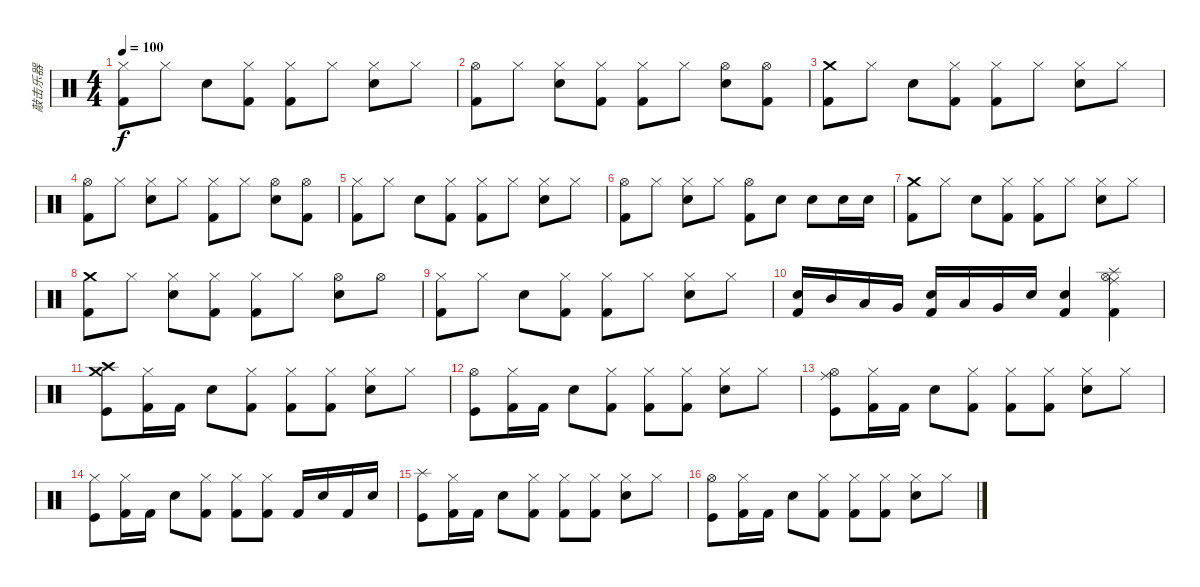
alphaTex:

\track ("敲击乐器" "敲击乐器") {instrument percussion}
\staff {score}
\articulation defaults
\ts (4 4)
\tempo 100
\clef neutral
\ks c
("Hi-Hat (closed)" "Kick (hit) 2").8{dy f} "Hi-Hat (closed)".8 "Electric Snare (hit)".8 ("Hi-Hat (closed)" "Kick (hit) 2").8 ("Hi-Hat (closed)" "Kick (hit) 2").8 "Hi-Hat (closed)".8 ("Hi-Hat (closed)" "Electric Snare (hit)").8 "Hi-Hat (closed)".8 |
("Hi-Hat (open)" "Kick (hit) 2").8 "Hi-Hat (closed)".8 ("Hi-Hat (closed)" "Electric Snare (hit)").8 ("Hi-Hat (closed)" "Kick (hit) 2").8 ("Hi-Hat (closed)" "Kick (hit) 2").8 "Hi-Hat (closed)".8 ("Hi-Hat (open)" "Electric Snare (hit)").8 ("Hi-Hat (open)" "Kick (hit) 2").8 |
("Crash medium (hit)" "Kick (hit) 2").8 "Hi-Hat (closed)".8 "Electric Snare (hit)".8 ("Hi-Hat (closed)" "Kick (hit) 2").8 ("Hi-Hat (closed)" "Kick (hit) 2").8 "Hi-Hat (closed)".8 ("Hi-Hat (closed)" "Electric Snare (hit)").8 "Hi-Hat (closed)".8 |
("Hi-Hat (open)" "Kick (hit) 2").8 "Hi-Hat (closed)".8 ("Hi-Hat (closed)" "Electric Snare (hit)").8 "Hi-Hat (closed)".8 ("Hi-Hat (closed)" "Kick (hit) 2").8 "Hi-Hat (closed)".8 ("Hi-Hat (open)" "Electric Snare (hit)").8 ("Hi-Hat (open)" "Kick (hit) 2").8 |
("Hi-Hat (closed)" "Kick (hit) 2").8 "Hi-Hat (closed)".8 "Electric Snare (hit)".8 ("Hi-Hat (closed)" "Kick (hit) 2").8 ("Hi-Hat (closed)" "Kick (hit) 2").8 "Hi-Hat (closed)".8 ("Hi-Hat (closed)" "Electric Snare (hit)").8 "Hi-Hat (closed)".8 |
("Hi-Hat (open)" "Kick (hit) 2").8 "Hi-Hat (closed)".8 ("Hi-Hat (closed)" "Electric Snare (hit)").8 "Hi-Hat (closed)".8 ("Hi-Hat (open)" "Kick (hit) 2").8 "Electric Snare (hit)".8 "Electric Snare (hit)".8 "Electric Snare (hit)".16 "Electric Snare (hit)".16 |
("Crash medium (hit)" "Kick (hit) 2").8 "Hi-Hat (closed)".8 "Electric Snare (hit)".8 ("Hi-Hat (closed)" "Kick (hit) 2").8 ("Hi-Hat (closed)" "Kick (hit) 2").8 "Hi-Hat (closed)".8 ("Hi-Hat (closed)" "Electric Snare (hit)").8 "Hi-Hat (closed)".8 |
("Crash medium (hit)" "Kick (hit) 2").8 "Hi-Hat (closed)".8 ("Hi-Hat (closed)" "Electric Snare (hit)").8 ("Hi-Hat (closed)" "Kick (hit) 2").8 ("Hi-Hat (closed)" "Kick (hit) 2").8 "Hi-Hat (closed)".8 ("Hi-Hat (open)" "Electric Snare (hit)").8 "Hi-Hat (open)".8 |
("Hi-Hat (closed)" "Kick (hit) 2").8 "Hi-Hat (closed)".8 "Electric Snare (hit)".8 ("Hi-Hat (closed)" "Kick (hit) 2").8 ("Hi-Hat (closed)" "Kick (hit) 2").8 "Hi-Hat (closed)".8 ("Hi-Hat (closed)" "Electric Snare (hit)").8 "Hi-Hat (closed)".8 |
("Electric Snare (hit)" "Kick (hit) 2").16 "Mid Tom (hit)".16 "Low Tom (hit)".16 "Very Low Tom (hit)".16 ("Electric Snare (hit)" "Kick (hit) 2").16 "Low Tom (hit)".16 "Very Low Tom (hit)".16 "Electric Snare (hit)".16 ("Electric Snare (hit)" "Kick (hit) 2").4 ("Splash (hit)" "Ride (middle)" "Hi-Hat (open)" "Kick (hit) 2").4 |
("Crash medium (hit)" "Crash high (hit)" "Kick (hit)").8 ("Hi-Hat (closed)" "Kick (hit) 2").16 "Kick (hit) 2".16 "Electric Snare (hit)".8 ("Hi-Hat (closed)" "Kick (hit) 2").8 ("Hi-Hat (closed)" "Kick (hit) 2").8 ("Hi-Hat (closed)" "Kick (hit) 2").8 ("Hi-Hat (closed)" "Electric Snare (hit)").8 "Hi-Hat (closed)".8 |
("Hi-Hat (open)" "Kick (hit)").8 ("Hi-Hat (closed)" "Kick (hit) 2").16 "Kick (hit) 2".16 "Electric Snare (hit)".8 ("Hi-Hat (closed)" "Kick (hit) 2").8 ("Hi-Hat (closed)" "Kick (hit) 2").8 ("Hi-Hat (closed)" "Kick (hit) 2").8 ("Hi-Hat (closed)" "Electric Snare (hit)").8 "Hi-Hat (closed)".8 |
("Ride (middle)" "Hi-Hat (open)" "Kick (hit)").8 ("Hi-Hat (closed)" "Kick (hit) 2").16 "Kick (hit) 2".16 "Electric Snare (hit)".8 ("Hi-Hat (closed)" "Kick (hit) 2").8 ("Hi-Hat (closed)" "Kick (hit) 2").8 ("Hi-Hat (closed)" "Kick (hit) 2").8 ("Hi-Hat (closed)" "Electric Snare (hit)").8 "Hi-Hat (closed)".8 |
("Hi-Hat (closed)" "Kick (hit)").8 ("Hi-Hat (closed)" "Kick (hit) 2").16 "Kick (hit) 2".16 "Electric Snare (hit)".8 ("Hi-Hat (closed)" "Kick (hit) 2").8 ("Hi-Hat (closed)" "Kick (hit) 2").8 ("Hi-Hat (closed)" "Kick (hit) 2").8 "Kick (hit) 2".16 "Electric Snare (hit)".16 "Kick (hit) 2".16 "Electric Snare (hit)".16 |
("Splash (hit)" "Kick (hit)").8 ("Hi-Hat (closed)" "Kick (hit) 2").16 "Kick (hit) 2".16 "Electric Snare (hit)".8 ("Hi-Hat (closed)" "Kick (hit) 2").8 ("Hi-Hat (closed)" "Kick (hit) 2").8 ("Hi-Hat (closed)" "Kick (hit) 2").8 ("Hi-Hat (closed)" "Electric Snare (hit)").8 "Hi-Hat (closed)".8 |
("Hi-Hat (open)" "Kick (hit)").8 ("Hi-Hat (closed)" "Kick (hit) 2").16 "Kick (hit) 2".16 "Electric Snare (hit)".8 ("Hi-Hat (closed)" "Kick (hit) 2").8 ("Hi-Hat (closed)" "Kick (hit) 2").8 ("Hi-Hat (closed)" "Kick (hit) 2").8 ("Hi-Hat (closed)" "Electric Snare (hit)").8 "Hi-Hat (closed)".8
